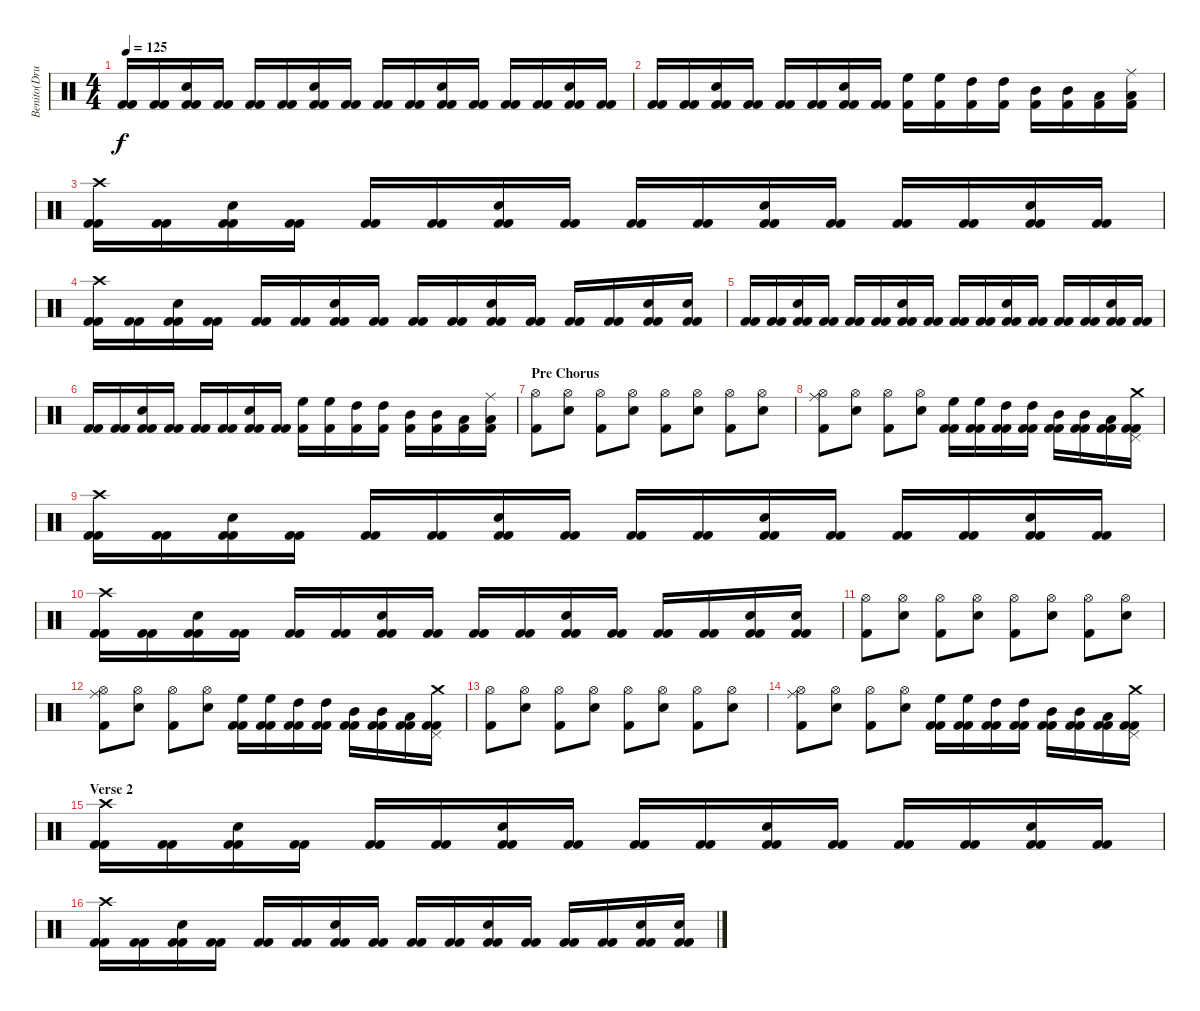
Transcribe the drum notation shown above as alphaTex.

\track ("Benito(Drums)" "Benito(Dru") {instrument percussion}
\staff {score}
\articulation defaults
\ts (4 4)
\tempo 125
\clef neutral
\ks c
("Kick (hit) 2" "Kick (hit) 2").16{dy f} ("Kick (hit) 2" "Kick (hit) 2").16 ("Kick (hit) 2" "Kick (hit) 2" "Electric Snare (hit)").16 ("Kick (hit) 2" "Kick (hit) 2").16 ("Kick (hit) 2" "Kick (hit) 2").16 ("Kick (hit) 2" "Kick (hit) 2").16 ("Kick (hit) 2" "Kick (hit) 2" "Electric Snare (hit)").16 ("Kick (hit) 2" "Kick (hit) 2").16 ("Kick (hit) 2" "Kick (hit) 2").16 ("Kick (hit) 2" "Kick (hit) 2").16 ("Kick (hit) 2" "Kick (hit) 2" "Electric Snare (hit)").16 ("Kick (hit) 2" "Kick (hit) 2").16 ("Kick (hit) 2" "Kick (hit) 2").16 ("Kick (hit) 2" "Kick (hit) 2").16 ("Kick (hit) 2" "Kick (hit) 2" "Electric Snare (hit)").16 ("Kick (hit) 2" "Kick (hit) 2").16 |
("Kick (hit) 2" "Kick (hit) 2").16 ("Kick (hit) 2" "Kick (hit) 2").16 ("Kick (hit) 2" "Kick (hit) 2" "Electric Snare (hit)").16 ("Kick (hit) 2" "Kick (hit) 2").16 ("Kick (hit) 2" "Kick (hit) 2").16 ("Kick (hit) 2" "Kick (hit) 2").16 ("Kick (hit) 2" "Kick (hit) 2" "Electric Snare (hit)").16 ("Kick (hit) 2" "Kick (hit) 2").16 ("Kick (hit) 2" "High Floor Tom (hit)").16 ("Kick (hit) 2" "High Floor Tom (hit)").16 ("Kick (hit) 2" "High Tom (hit)").16 ("Kick (hit) 2" "High Tom (hit)").16 ("Kick (hit) 2" "Mid Tom (hit)").16 ("Kick (hit) 2" "Mid Tom (hit)").16 ("Kick (hit) 2" "Low Tom (hit)").16 ("Kick (hit) 2" "Low Tom (hit)" "Ride (middle)").16 |
("Kick (hit) 2" "Kick (hit) 2" "Crash high (hit)").16 ("Kick (hit) 2" "Kick (hit) 2").16 ("Kick (hit) 2" "Kick (hit) 2" "Electric Snare (hit)").16 ("Kick (hit) 2" "Kick (hit) 2").16 ("Kick (hit) 2" "Kick (hit) 2").16 ("Kick (hit) 2" "Kick (hit) 2").16 ("Kick (hit) 2" "Kick (hit) 2" "Electric Snare (hit)").16 ("Kick (hit) 2" "Kick (hit) 2").16 ("Kick (hit) 2" "Kick (hit) 2").16 ("Kick (hit) 2" "Kick (hit) 2").16 ("Kick (hit) 2" "Kick (hit) 2" "Electric Snare (hit)").16 ("Kick (hit) 2" "Kick (hit) 2").16 ("Kick (hit) 2" "Kick (hit) 2").16 ("Kick (hit) 2" "Kick (hit) 2").16 ("Kick (hit) 2" "Kick (hit) 2" "Electric Snare (hit)").16 ("Kick (hit) 2" "Kick (hit) 2").16 |
("Kick (hit) 2" "Kick (hit) 2" "Crash high (hit)").16 ("Kick (hit) 2" "Kick (hit) 2").16 ("Kick (hit) 2" "Kick (hit) 2" "Electric Snare (hit)").16 ("Kick (hit) 2" "Kick (hit) 2").16 ("Kick (hit) 2" "Kick (hit) 2").16 ("Kick (hit) 2" "Kick (hit) 2").16 ("Kick (hit) 2" "Kick (hit) 2" "Electric Snare (hit)").16 ("Kick (hit) 2" "Kick (hit) 2").16 ("Kick (hit) 2" "Kick (hit) 2").16 ("Kick (hit) 2" "Kick (hit) 2").16 ("Kick (hit) 2" "Kick (hit) 2" "Electric Snare (hit)").16 ("Kick (hit) 2" "Kick (hit) 2").16 ("Kick (hit) 2" "Kick (hit) 2").16 ("Kick (hit) 2" "Kick (hit) 2").16 ("Kick (hit) 2" "Kick (hit) 2" "Electric Snare (hit)").16 ("Kick (hit) 2" "Kick (hit) 2" "Electric Snare (hit)").16 |
("Kick (hit) 2" "Kick (hit) 2").16 ("Kick (hit) 2" "Kick (hit) 2").16 ("Kick (hit) 2" "Kick (hit) 2" "Electric Snare (hit)").16 ("Kick (hit) 2" "Kick (hit) 2").16 ("Kick (hit) 2" "Kick (hit) 2").16 ("Kick (hit) 2" "Kick (hit) 2").16 ("Kick (hit) 2" "Kick (hit) 2" "Electric Snare (hit)").16 ("Kick (hit) 2" "Kick (hit) 2").16 ("Kick (hit) 2" "Kick (hit) 2").16 ("Kick (hit) 2" "Kick (hit) 2").16 ("Kick (hit) 2" "Kick (hit) 2" "Electric Snare (hit)").16 ("Kick (hit) 2" "Kick (hit) 2").16 ("Kick (hit) 2" "Kick (hit) 2").16 ("Kick (hit) 2" "Kick (hit) 2").16 ("Kick (hit) 2" "Kick (hit) 2" "Electric Snare (hit)").16 ("Kick (hit) 2" "Kick (hit) 2").16 |
("Kick (hit) 2" "Kick (hit) 2").16 ("Kick (hit) 2" "Kick (hit) 2").16 ("Kick (hit) 2" "Kick (hit) 2" "Electric Snare (hit)").16 ("Kick (hit) 2" "Kick (hit) 2").16 ("Kick (hit) 2" "Kick (hit) 2").16 ("Kick (hit) 2" "Kick (hit) 2").16 ("Kick (hit) 2" "Kick (hit) 2" "Electric Snare (hit)").16 ("Kick (hit) 2" "Kick (hit) 2").16 ("Kick (hit) 2" "High Floor Tom (hit)").16 ("Kick (hit) 2" "High Floor Tom (hit)").16 ("Kick (hit) 2" "High Tom (hit)").16 ("Kick (hit) 2" "High Tom (hit)").16 ("Kick (hit) 2" "Mid Tom (hit)").16 ("Kick (hit) 2" "Mid Tom (hit)").16 ("Kick (hit) 2" "Low Tom (hit)").16 ("Kick (hit) 2" "Low Tom (hit)" "Ride (middle)").16 |
\section ("" "Pre Chorus")
("Kick (hit) 2" "Hi-Hat (open)").8 ("Hi-Hat (open)" "Electric Snare (hit)").8 ("Kick (hit) 2" "Hi-Hat (open)").8 ("Hi-Hat (open)" "Electric Snare (hit)").8 ("Kick (hit) 2" "Hi-Hat (open)").8 ("Hi-Hat (open)" "Electric Snare (hit)").8 ("Kick (hit) 2" "Hi-Hat (open)").8 ("Hi-Hat (open)" "Electric Snare (hit)").8 |
("Kick (hit) 2" "Hi-Hat (open)" "Ride (middle)").8 ("Hi-Hat (open)" "Snare (hit) 2").8 ("Kick (hit) 2" "Hi-Hat (open)").8 ("Hi-Hat (open)" "Snare (hit) 2").8 ("Kick (hit) 2" "Kick (hit) 2" "High Floor Tom (hit)").16 ("Kick (hit) 2" "Kick (hit) 2" "High Floor Tom (hit)").16 ("Kick (hit) 2" "Kick (hit) 2" "High Tom (hit)").16 ("Kick (hit) 2" "Kick (hit) 2" "High Tom (hit)").16 ("Kick (hit) 2" "Kick (hit) 2" "Mid Tom (hit)").16 ("Kick (hit) 2" "Kick (hit) 2" "Mid Tom (hit)").16 ("Kick (hit) 2" "Kick (hit) 2" "Low Tom (hit)").16 ("Kick (hit) 2" "Kick (hit) 2" "Pedal Hi-Hat (hit)" "Crash medium (hit)").16 |
("Kick (hit) 2" "Kick (hit) 2" "Crash high (hit)").16 ("Kick (hit) 2" "Kick (hit) 2").16 ("Kick (hit) 2" "Kick (hit) 2" "Electric Snare (hit)").16 ("Kick (hit) 2" "Kick (hit) 2").16 ("Kick (hit) 2" "Kick (hit) 2").16 ("Kick (hit) 2" "Kick (hit) 2").16 ("Kick (hit) 2" "Kick (hit) 2" "Electric Snare (hit)").16 ("Kick (hit) 2" "Kick (hit) 2").16 ("Kick (hit) 2" "Kick (hit) 2").16 ("Kick (hit) 2" "Kick (hit) 2").16 ("Kick (hit) 2" "Kick (hit) 2" "Electric Snare (hit)").16 ("Kick (hit) 2" "Kick (hit) 2").16 ("Kick (hit) 2" "Kick (hit) 2").16 ("Kick (hit) 2" "Kick (hit) 2").16 ("Kick (hit) 2" "Kick (hit) 2" "Electric Snare (hit)").16 ("Kick (hit) 2" "Kick (hit) 2").16 |
("Kick (hit) 2" "Kick (hit) 2" "Crash high (hit)").16 ("Kick (hit) 2" "Kick (hit) 2").16 ("Kick (hit) 2" "Kick (hit) 2" "Electric Snare (hit)").16 ("Kick (hit) 2" "Kick (hit) 2").16 ("Kick (hit) 2" "Kick (hit) 2").16 ("Kick (hit) 2" "Kick (hit) 2").16 ("Kick (hit) 2" "Kick (hit) 2" "Electric Snare (hit)").16 ("Kick (hit) 2" "Kick (hit) 2").16 ("Kick (hit) 2" "Kick (hit) 2").16 ("Kick (hit) 2" "Kick (hit) 2").16 ("Kick (hit) 2" "Kick (hit) 2" "Electric Snare (hit)").16 ("Kick (hit) 2" "Kick (hit) 2").16 ("Kick (hit) 2" "Kick (hit) 2").16 ("Kick (hit) 2" "Kick (hit) 2").16 ("Kick (hit) 2" "Kick (hit) 2" "Electric Snare (hit)").16 ("Kick (hit) 2" "Kick (hit) 2" "Electric Snare (hit)").16 |
("Kick (hit) 2" "Hi-Hat (open)").8 ("Hi-Hat (open)" "Electric Snare (hit)").8 ("Kick (hit) 2" "Hi-Hat (open)").8 ("Hi-Hat (open)" "Electric Snare (hit)").8 ("Kick (hit) 2" "Hi-Hat (open)").8 ("Hi-Hat (open)" "Electric Snare (hit)").8 ("Kick (hit) 2" "Hi-Hat (open)").8 ("Hi-Hat (open)" "Electric Snare (hit)").8 |
("Kick (hit) 2" "Hi-Hat (open)" "Ride (middle)").8 ("Hi-Hat (open)" "Snare (hit) 2").8 ("Kick (hit) 2" "Hi-Hat (open)").8 ("Hi-Hat (open)" "Snare (hit) 2").8 ("Kick (hit) 2" "Kick (hit) 2" "High Floor Tom (hit)").16 ("Kick (hit) 2" "Kick (hit) 2" "High Floor Tom (hit)").16 ("Kick (hit) 2" "Kick (hit) 2" "High Tom (hit)").16 ("Kick (hit) 2" "Kick (hit) 2" "High Tom (hit)").16 ("Kick (hit) 2" "Kick (hit) 2" "Mid Tom (hit)").16 ("Kick (hit) 2" "Kick (hit) 2" "Mid Tom (hit)").16 ("Kick (hit) 2" "Kick (hit) 2" "Low Tom (hit)").16 ("Kick (hit) 2" "Kick (hit) 2" "Pedal Hi-Hat (hit)" "Crash medium (hit)").16 |
("Kick (hit) 2" "Hi-Hat (open)").8 ("Hi-Hat (open)" "Electric Snare (hit)").8 ("Kick (hit) 2" "Hi-Hat (open)").8 ("Hi-Hat (open)" "Electric Snare (hit)").8 ("Kick (hit) 2" "Hi-Hat (open)").8 ("Hi-Hat (open)" "Electric Snare (hit)").8 ("Kick (hit) 2" "Hi-Hat (open)").8 ("Hi-Hat (open)" "Electric Snare (hit)").8 |
("Kick (hit) 2" "Hi-Hat (open)" "Ride (middle)").8 ("Hi-Hat (open)" "Snare (hit) 2").8 ("Kick (hit) 2" "Hi-Hat (open)").8 ("Hi-Hat (open)" "Snare (hit) 2").8 ("Kick (hit) 2" "Kick (hit) 2" "High Floor Tom (hit)").16 ("Kick (hit) 2" "Kick (hit) 2" "High Floor Tom (hit)").16 ("Kick (hit) 2" "Kick (hit) 2" "High Tom (hit)").16 ("Kick (hit) 2" "Kick (hit) 2" "High Tom (hit)").16 ("Kick (hit) 2" "Kick (hit) 2" "Mid Tom (hit)").16 ("Kick (hit) 2" "Kick (hit) 2" "Mid Tom (hit)").16 ("Kick (hit) 2" "Kick (hit) 2" "Low Tom (hit)").16 ("Kick (hit) 2" "Kick (hit) 2" "Pedal Hi-Hat (hit)" "Crash medium (hit)").16 |
\section ("" "Verse 2")
("Kick (hit) 2" "Kick (hit) 2" "Crash high (hit)").16 ("Kick (hit) 2" "Kick (hit) 2").16 ("Kick (hit) 2" "Kick (hit) 2" "Electric Snare (hit)").16 ("Kick (hit) 2" "Kick (hit) 2").16 ("Kick (hit) 2" "Kick (hit) 2").16 ("Kick (hit) 2" "Kick (hit) 2").16 ("Kick (hit) 2" "Kick (hit) 2" "Electric Snare (hit)").16 ("Kick (hit) 2" "Kick (hit) 2").16 ("Kick (hit) 2" "Kick (hit) 2").16 ("Kick (hit) 2" "Kick (hit) 2").16 ("Kick (hit) 2" "Kick (hit) 2" "Electric Snare (hit)").16 ("Kick (hit) 2" "Kick (hit) 2").16 ("Kick (hit) 2" "Kick (hit) 2").16 ("Kick (hit) 2" "Kick (hit) 2").16 ("Kick (hit) 2" "Kick (hit) 2" "Electric Snare (hit)").16 ("Kick (hit) 2" "Kick (hit) 2").16 |
("Kick (hit) 2" "Kick (hit) 2" "Crash high (hit)").16 ("Kick (hit) 2" "Kick (hit) 2").16 ("Kick (hit) 2" "Kick (hit) 2" "Electric Snare (hit)").16 ("Kick (hit) 2" "Kick (hit) 2").16 ("Kick (hit) 2" "Kick (hit) 2").16 ("Kick (hit) 2" "Kick (hit) 2").16 ("Kick (hit) 2" "Kick (hit) 2" "Electric Snare (hit)").16 ("Kick (hit) 2" "Kick (hit) 2").16 ("Kick (hit) 2" "Kick (hit) 2").16 ("Kick (hit) 2" "Kick (hit) 2").16 ("Kick (hit) 2" "Kick (hit) 2" "Electric Snare (hit)").16 ("Kick (hit) 2" "Kick (hit) 2").16 ("Kick (hit) 2" "Kick (hit) 2").16 ("Kick (hit) 2" "Kick (hit) 2").16 ("Kick (hit) 2" "Kick (hit) 2" "Electric Snare (hit)").16 ("Kick (hit) 2" "Kick (hit) 2" "Electric Snare (hit)").16
